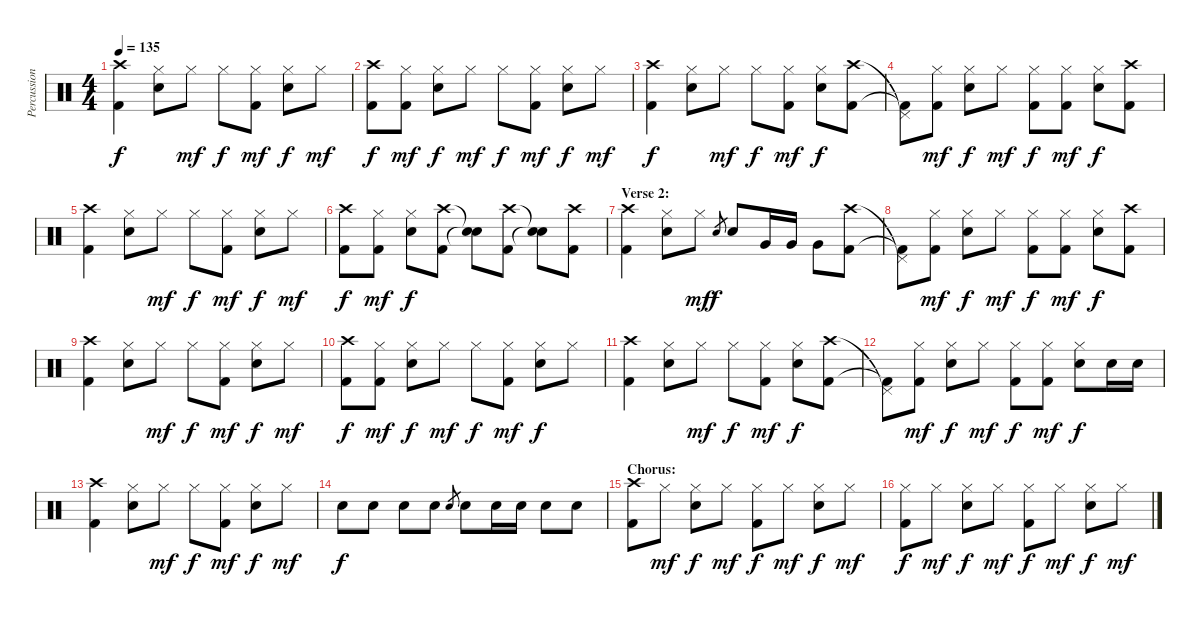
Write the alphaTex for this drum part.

\track ("Percussion" "Percussion") {instrument percussion}
\staff {score}
\articulation defaults
\ts (4 4)
\tempo 135
\clef neutral
\ks c
("Crash high (hit)" "Kick (hit) 2").4{dy f} ("Hi-Hat (closed)" "Snare (hit) 2").8 "Hi-Hat (closed)".8{dy mf} "Hi-Hat (closed)".8{dy f} ("Hi-Hat (closed)" "Kick (hit) 2").8{dy mf} ("Hi-Hat (closed)" "Snare (hit) 2").8{dy f} "Hi-Hat (closed)".8{dy mf} |
("Crash high (hit)" "Kick (hit) 2").8{dy f} ("Hi-Hat (closed)" "Kick (hit) 2").8{dy mf} ("Hi-Hat (closed)" "Snare (hit) 2").8{dy f} "Hi-Hat (closed)".8{dy mf} "Hi-Hat (closed)".8{dy f} ("Hi-Hat (closed)" "Kick (hit) 2").8{dy mf} ("Hi-Hat (closed)" "Snare (hit) 2").8{dy f} "Hi-Hat (closed)".8{dy mf} |
("Crash high (hit)" "Kick (hit) 2").4{dy f} ("Hi-Hat (closed)" "Snare (hit) 2").8 "Hi-Hat (closed)".8{dy mf} "Hi-Hat (closed)".8{dy f} ("Hi-Hat (closed)" "Kick (hit) 2").8{dy mf} ("Hi-Hat (closed)" "Snare (hit) 2").8{dy f} ("Crash high (hit)" "Kick (hit) 2").8 |
("Pedal Hi-Hat (hit)"{t} "Kick (hit) 2"{t}).8 ("Hi-Hat (closed)" "Kick (hit) 2").8{dy mf} ("Hi-Hat (closed)" "Snare (hit) 2").8{dy f} "Hi-Hat (closed)".8{dy mf} ("Hi-Hat (closed)" "Kick (hit) 2").8{dy f} ("Hi-Hat (closed)" "Kick (hit) 2").8{dy mf} ("Hi-Hat (closed)" "Snare (hit) 2").8{dy f} ("Crash high (hit)" "Kick (hit) 2").8 |
("Crash high (hit)" "Kick (hit) 2").4 ("Hi-Hat (closed)" "Snare (hit) 2").8 "Hi-Hat (closed)".8{dy mf} "Hi-Hat (closed)".8{dy f} ("Hi-Hat (closed)" "Kick (hit) 2").8{dy mf} ("Hi-Hat (closed)" "Snare (hit) 2").8{dy f} "Hi-Hat (closed)".8{dy mf} |
("Crash high (hit)" "Kick (hit) 2").8{dy f} ("Hi-Hat (closed)" "Kick (hit) 2").8{dy mf} ("Hi-Hat (closed)" "Snare (hit) 2").8{dy f} ("Crash high (hit)" "Kick (hit) 2").8 ("Snare (hit)"{t} "Snare (hit)"{t}).8 ("Crash high (hit)" "Kick (hit) 2").8 ("Snare (hit)"{t} "Snare (hit)"{t}).8 ("Crash high (hit)" "Kick (hit) 2").8 |
\section ("" "Verse 2:")
("Crash high (hit)" "Kick (hit) 2").4 ("Hi-Hat (closed)" "Snare (hit) 2").8 "Hi-Hat (closed)".8{dy mf} "Snare (hit) 2".8{gr dy f} "Snare (hit) 2".8 "Very Low Tom (hit)".16 "Very Low Tom (hit)".16 "Very Low Tom (hit)".8 ("Crash high (hit)" "Kick (hit) 2").8 |
("Pedal Hi-Hat (hit)"{t} "Kick (hit) 2"{t}).8 ("Hi-Hat (closed)" "Kick (hit) 2").8{dy mf} ("Hi-Hat (closed)" "Snare (hit) 2").8{dy f} "Hi-Hat (closed)".8{dy mf} ("Hi-Hat (closed)" "Kick (hit) 2").8{dy f} ("Hi-Hat (closed)" "Kick (hit) 2").8{dy mf} ("Hi-Hat (closed)" "Snare (hit) 2").8{dy f} ("Crash high (hit)" "Kick (hit) 2").8 |
("Crash high (hit)" "Kick (hit) 2").4 ("Hi-Hat (closed)" "Snare (hit) 2").8 "Hi-Hat (closed)".8{dy mf} "Hi-Hat (closed)".8{dy f} ("Hi-Hat (closed)" "Kick (hit) 2").8{dy mf} ("Hi-Hat (closed)" "Snare (hit) 2").8{dy f} "Hi-Hat (closed)".8{dy mf} |
("Crash high (hit)" "Kick (hit) 2").8{dy f} ("Hi-Hat (closed)" "Kick (hit) 2").8{dy mf} ("Hi-Hat (closed)" "Snare (hit) 2").8{dy f} "Hi-Hat (closed)".8{dy mf} "Hi-Hat (closed)".8{dy f} ("Hi-Hat (closed)" "Kick (hit) 2").8{dy mf} ("Hi-Hat (closed)" "Snare (hit) 2").8{dy f} "Hi-Hat (closed)".8 |
("Crash high (hit)" "Kick (hit) 2").4 ("Hi-Hat (closed)" "Snare (hit) 2").8 "Hi-Hat (closed)".8{dy mf} "Hi-Hat (closed)".8{dy f} ("Hi-Hat (closed)" "Kick (hit) 2").8{dy mf} ("Hi-Hat (closed)" "Snare (hit) 2").8{dy f} ("Crash high (hit)" "Kick (hit) 2").8 |
("Pedal Hi-Hat (hit)"{t} "Kick (hit) 2"{t}).8 ("Hi-Hat (closed)" "Kick (hit) 2").8{dy mf} ("Hi-Hat (closed)" "Snare (hit) 2").8{dy f} "Hi-Hat (closed)".8{dy mf} ("Hi-Hat (closed)" "Kick (hit) 2").8{dy f} ("Hi-Hat (closed)" "Kick (hit) 2").8{dy mf} ("Hi-Hat (closed)" "Snare (hit) 2").8{dy f} "Snare (hit) 2".16 "Snare (hit) 2".16 |
("Crash high (hit)" "Kick (hit) 2").4 ("Hi-Hat (closed)" "Snare (hit) 2").8 "Hi-Hat (closed)".8{dy mf} "Hi-Hat (closed)".8{dy f} ("Hi-Hat (closed)" "Kick (hit) 2").8{dy mf} ("Hi-Hat (closed)" "Snare (hit) 2").8{dy f} "Hi-Hat (closed)".8{dy mf} |
"Snare (hit) 2".8{dy f} "Snare (hit) 2".8 "Snare (hit) 2".8 "Snare (hit) 2".8 "Snare (hit) 2".8{gr} "Snare (hit) 2".8 "Snare (hit) 2".16 "Snare (hit) 2".16 "Snare (hit) 2".8 "Snare (hit) 2".8 |
\section ("" "Chorus:")
("Crash high (hit)" "Kick (hit) 2").8 "Hi-Hat (closed)".8{dy mf} ("Hi-Hat (closed)" "Snare (hit) 2").8{dy f} "Hi-Hat (closed)".8{dy mf} ("Hi-Hat (closed)" "Kick (hit) 2").8{dy f} "Hi-Hat (closed)".8{dy mf} ("Hi-Hat (closed)" "Snare (hit) 2").8{dy f} "Hi-Hat (closed)".8{dy mf} |
("Hi-Hat (closed)" "Kick (hit) 2").8{dy f} "Hi-Hat (closed)".8{dy mf} ("Hi-Hat (closed)" "Snare (hit) 2").8{dy f} "Hi-Hat (closed)".8{dy mf} ("Hi-Hat (closed)" "Kick (hit) 2").8{dy f} "Hi-Hat (closed)".8{dy mf} ("Hi-Hat (closed)" "Snare (hit) 2").8{dy f} "Hi-Hat (closed)".8{dy mf}
